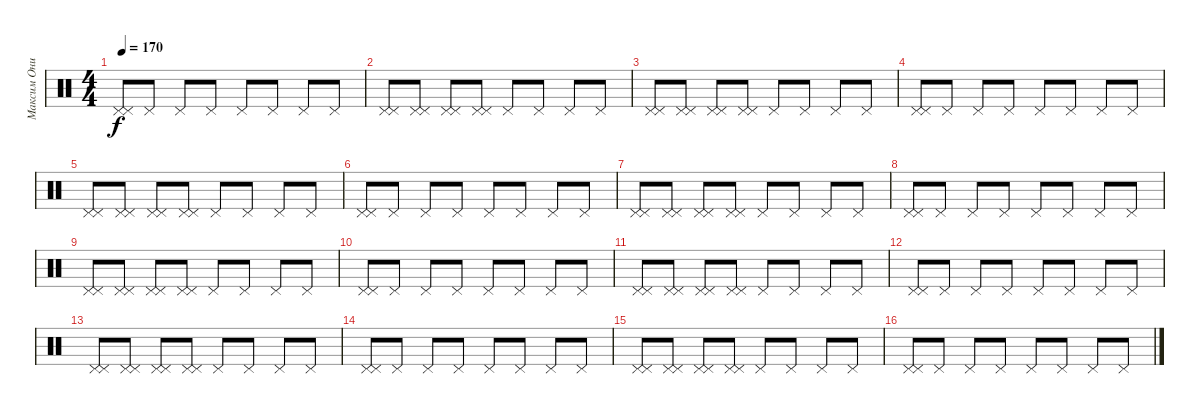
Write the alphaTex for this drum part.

\track ("Максим Онищенко" "Максим Они") {instrument percussion}
\staff {score}
\articulation defaults
\ts (4 4)
\tempo 170
\clef neutral
\ks c
("Pedal Hi-Hat (hit)" "Pedal Hi-Hat (hit)").8{dy f} "Pedal Hi-Hat (hit)".8 "Pedal Hi-Hat (hit)".8 "Pedal Hi-Hat (hit)".8 "Pedal Hi-Hat (hit)".8 "Pedal Hi-Hat (hit)".8 "Pedal Hi-Hat (hit)".8 "Pedal Hi-Hat (hit)".8 |
("Pedal Hi-Hat (hit)" "Pedal Hi-Hat (hit)").8 ("Pedal Hi-Hat (hit)" "Pedal Hi-Hat (hit)").8 ("Pedal Hi-Hat (hit)" "Pedal Hi-Hat (hit)").8 ("Pedal Hi-Hat (hit)" "Pedal Hi-Hat (hit)").8 "Pedal Hi-Hat (hit)".8 "Pedal Hi-Hat (hit)".8 "Pedal Hi-Hat (hit)".8 "Pedal Hi-Hat (hit)".8 |
("Pedal Hi-Hat (hit)" "Pedal Hi-Hat (hit)").8 ("Pedal Hi-Hat (hit)" "Pedal Hi-Hat (hit)").8 ("Pedal Hi-Hat (hit)" "Pedal Hi-Hat (hit)").8 ("Pedal Hi-Hat (hit)" "Pedal Hi-Hat (hit)").8 "Pedal Hi-Hat (hit)".8 "Pedal Hi-Hat (hit)".8 "Pedal Hi-Hat (hit)".8 "Pedal Hi-Hat (hit)".8 |
("Pedal Hi-Hat (hit)" "Pedal Hi-Hat (hit)").8 "Pedal Hi-Hat (hit)".8 "Pedal Hi-Hat (hit)".8 "Pedal Hi-Hat (hit)".8 "Pedal Hi-Hat (hit)".8 "Pedal Hi-Hat (hit)".8 "Pedal Hi-Hat (hit)".8 "Pedal Hi-Hat (hit)".8 |
("Pedal Hi-Hat (hit)" "Pedal Hi-Hat (hit)").8 ("Pedal Hi-Hat (hit)" "Pedal Hi-Hat (hit)").8 ("Pedal Hi-Hat (hit)" "Pedal Hi-Hat (hit)").8 ("Pedal Hi-Hat (hit)" "Pedal Hi-Hat (hit)").8 "Pedal Hi-Hat (hit)".8 "Pedal Hi-Hat (hit)".8 "Pedal Hi-Hat (hit)".8 "Pedal Hi-Hat (hit)".8 |
("Pedal Hi-Hat (hit)" "Pedal Hi-Hat (hit)").8 "Pedal Hi-Hat (hit)".8 "Pedal Hi-Hat (hit)".8 "Pedal Hi-Hat (hit)".8 "Pedal Hi-Hat (hit)".8 "Pedal Hi-Hat (hit)".8 "Pedal Hi-Hat (hit)".8 "Pedal Hi-Hat (hit)".8 |
("Pedal Hi-Hat (hit)" "Pedal Hi-Hat (hit)").8 ("Pedal Hi-Hat (hit)" "Pedal Hi-Hat (hit)").8 ("Pedal Hi-Hat (hit)" "Pedal Hi-Hat (hit)").8 ("Pedal Hi-Hat (hit)" "Pedal Hi-Hat (hit)").8 "Pedal Hi-Hat (hit)".8 "Pedal Hi-Hat (hit)".8 "Pedal Hi-Hat (hit)".8 "Pedal Hi-Hat (hit)".8 |
("Pedal Hi-Hat (hit)" "Pedal Hi-Hat (hit)").8 "Pedal Hi-Hat (hit)".8 "Pedal Hi-Hat (hit)".8 "Pedal Hi-Hat (hit)".8 "Pedal Hi-Hat (hit)".8 "Pedal Hi-Hat (hit)".8 "Pedal Hi-Hat (hit)".8 "Pedal Hi-Hat (hit)".8 |
("Pedal Hi-Hat (hit)" "Pedal Hi-Hat (hit)").8 ("Pedal Hi-Hat (hit)" "Pedal Hi-Hat (hit)").8 ("Pedal Hi-Hat (hit)" "Pedal Hi-Hat (hit)").8 ("Pedal Hi-Hat (hit)" "Pedal Hi-Hat (hit)").8 "Pedal Hi-Hat (hit)".8 "Pedal Hi-Hat (hit)".8 "Pedal Hi-Hat (hit)".8 "Pedal Hi-Hat (hit)".8 |
("Pedal Hi-Hat (hit)" "Pedal Hi-Hat (hit)").8 "Pedal Hi-Hat (hit)".8 "Pedal Hi-Hat (hit)".8 "Pedal Hi-Hat (hit)".8 "Pedal Hi-Hat (hit)".8 "Pedal Hi-Hat (hit)".8 "Pedal Hi-Hat (hit)".8 "Pedal Hi-Hat (hit)".8 |
("Pedal Hi-Hat (hit)" "Pedal Hi-Hat (hit)").8 ("Pedal Hi-Hat (hit)" "Pedal Hi-Hat (hit)").8 ("Pedal Hi-Hat (hit)" "Pedal Hi-Hat (hit)").8 ("Pedal Hi-Hat (hit)" "Pedal Hi-Hat (hit)").8 "Pedal Hi-Hat (hit)".8 "Pedal Hi-Hat (hit)".8 "Pedal Hi-Hat (hit)".8 "Pedal Hi-Hat (hit)".8 |
("Pedal Hi-Hat (hit)" "Pedal Hi-Hat (hit)").8 "Pedal Hi-Hat (hit)".8 "Pedal Hi-Hat (hit)".8 "Pedal Hi-Hat (hit)".8 "Pedal Hi-Hat (hit)".8 "Pedal Hi-Hat (hit)".8 "Pedal Hi-Hat (hit)".8 "Pedal Hi-Hat (hit)".8 |
("Pedal Hi-Hat (hit)" "Pedal Hi-Hat (hit)").8 ("Pedal Hi-Hat (hit)" "Pedal Hi-Hat (hit)").8 ("Pedal Hi-Hat (hit)" "Pedal Hi-Hat (hit)").8 ("Pedal Hi-Hat (hit)" "Pedal Hi-Hat (hit)").8 "Pedal Hi-Hat (hit)".8 "Pedal Hi-Hat (hit)".8 "Pedal Hi-Hat (hit)".8 "Pedal Hi-Hat (hit)".8 |
("Pedal Hi-Hat (hit)" "Pedal Hi-Hat (hit)").8 "Pedal Hi-Hat (hit)".8 "Pedal Hi-Hat (hit)".8 "Pedal Hi-Hat (hit)".8 "Pedal Hi-Hat (hit)".8 "Pedal Hi-Hat (hit)".8 "Pedal Hi-Hat (hit)".8 "Pedal Hi-Hat (hit)".8 |
("Pedal Hi-Hat (hit)" "Pedal Hi-Hat (hit)").8 ("Pedal Hi-Hat (hit)" "Pedal Hi-Hat (hit)").8 ("Pedal Hi-Hat (hit)" "Pedal Hi-Hat (hit)").8 ("Pedal Hi-Hat (hit)" "Pedal Hi-Hat (hit)").8 "Pedal Hi-Hat (hit)".8 "Pedal Hi-Hat (hit)".8 "Pedal Hi-Hat (hit)".8 "Pedal Hi-Hat (hit)".8 |
("Pedal Hi-Hat (hit)" "Pedal Hi-Hat (hit)").8 "Pedal Hi-Hat (hit)".8 "Pedal Hi-Hat (hit)".8 "Pedal Hi-Hat (hit)".8 "Pedal Hi-Hat (hit)".8 "Pedal Hi-Hat (hit)".8 "Pedal Hi-Hat (hit)".8 "Pedal Hi-Hat (hit)".8
